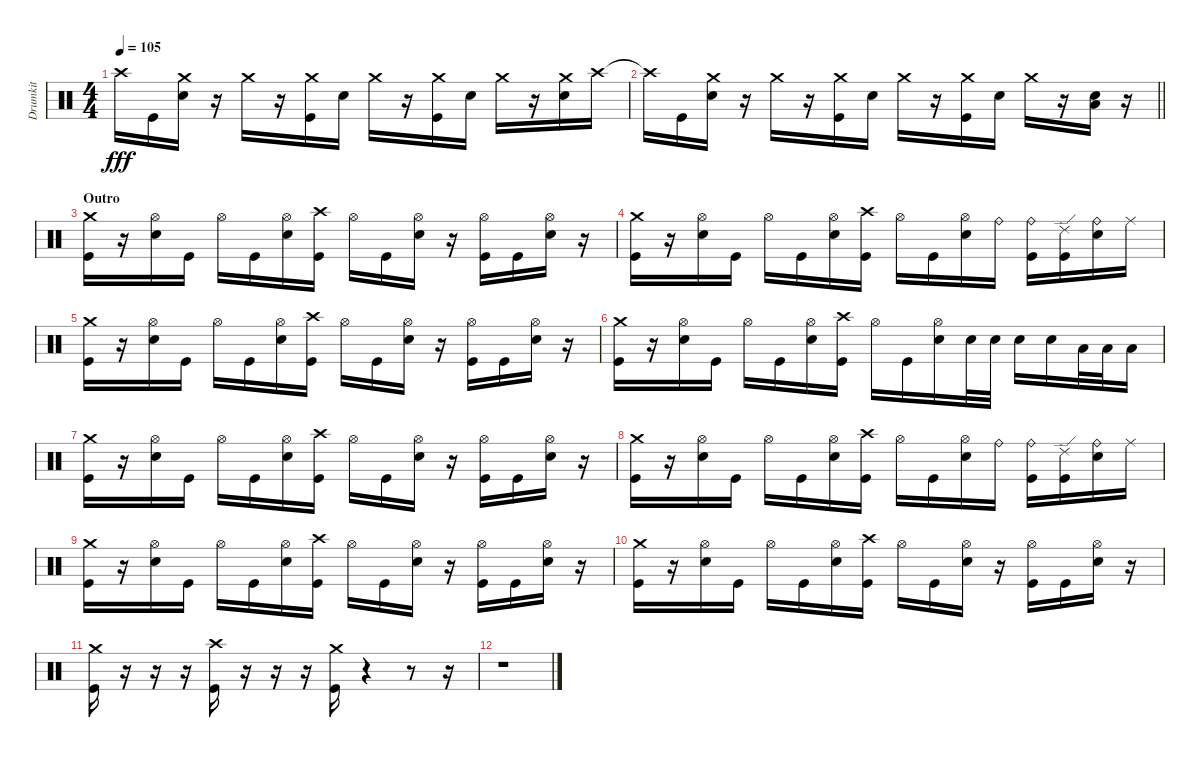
\track ("Drumkit" "Drumkit") {instrument percussion}
\staff {score}
\articulation defaults
\ts (4 4)
\tempo 105
\clef neutral
\ks c "Crash high (hit)"{t}.16{dy fff} "Kick (hit)".16
("Crash medium (hit)" "Snare (hit) 2").16 r.16 "Crash medium (hit)".16 r.16 ("Crash medium (hit)" "Kick (hit)").16 "Snare (hit) 2".16 "Crash medium (hit)".16 r.16 ("Crash medium (hit)" "Kick (hit)").16 "Snare (hit) 2".16 "Crash medium (hit)".16 r.16 ("Crash medium (hit)" "Snare (hit) 2").16 "Crash high (hit)".16 |
\barLineRight lightlight "Crash high (hit)"{t}.16 "Kick (hit)".16
("Crash medium (hit)" "Snare (hit) 2").16 r.16 "Crash medium (hit)".16 r.16 ("Crash medium (hit)" "Kick (hit)").16 "Snare (hit) 2".16 "Crash medium (hit)".16 r.16 ("Crash medium (hit)" "Kick (hit)").16 "Snare (hit) 2".16 "Crash medium (hit)".16 r.16 ("Low Tom (hit)" "Snare (hit) 2").16 r.16 |
\section ("" "Outro")
("Crash medium (hit)" "Kick (hit)").16 r.16 ("Hi-Hat (open)" "Snare (hit) 2").16 "Kick (hit)".16 "Hi-Hat (open)".16 "Kick (hit)".16 ("Hi-Hat (open)" "Snare (hit) 2").16 ("Crash high (hit)" "Kick (hit)").16 "Hi-Hat (open)".16 "Kick (hit)".16 ("Hi-Hat (open)" "Snare (hit) 2").16 r.16 ("Hi-Hat (open)" "Kick (hit)").16 "Kick (hit)".16 ("Hi-Hat (open)" "Snare (hit) 2").16 r.16 |
("Crash medium (hit)" "Kick (hit)").16 r.16 ("Hi-Hat (open)" "Snare (hit) 2").16 "Kick (hit)".16 "Hi-Hat (open)".16 "Kick (hit)".16 ("Hi-Hat (open)" "Snare (hit) 2").16 ("Crash high (hit)" "Kick (hit)").16 "Hi-Hat (open)".16 "Kick (hit)".16 ("Hi-Hat (open)" "Snare (hit) 2").16 "Ride (bell)".16 ("Ride (bell)" "Kick (hit)").16 ("Ride (edge) 2" "Kick (hit)").16 ("Ride (bell)" "Snare (hit) 2").16 "Ride (middle)".16 |
("Crash medium (hit)" "Kick (hit)").16 r.16 ("Hi-Hat (open)" "Snare (hit) 2").16 "Kick (hit)".16 "Hi-Hat (open)".16 "Kick (hit)".16 ("Hi-Hat (open)" "Snare (hit) 2").16 ("Crash high (hit)" "Kick (hit)").16 "Hi-Hat (open)".16 "Kick (hit)".16 ("Hi-Hat (open)" "Snare (hit) 2").16 r.16 ("Hi-Hat (open)" "Kick (hit)").16 "Kick (hit)".16 ("Hi-Hat (open)" "Snare (hit) 2").16 r.16 |
("Crash medium (hit)" "Kick (hit)").16 r.16 ("Hi-Hat (open)" "Snare (hit) 2").16 "Kick (hit)".16 "Hi-Hat (open)".16 "Kick (hit)".16 ("Hi-Hat (open)" "Snare (hit) 2").16 ("Crash high (hit)" "Kick (hit)").16 "Hi-Hat (open)".16 "Kick (hit)".16 ("Hi-Hat (open)" "Snare (hit) 2").16 "Snare (hit) 2".32 "Snare (hit) 2".32 "Snare (hit) 2".16 "Snare (hit) 2".16 "Low Tom (hit)".32 "Low Tom (hit)".32 "Low Floor Tom (hit)".16 |
("Crash medium (hit)" "Kick (hit)").16 r.16 ("Hi-Hat (open)" "Snare (hit) 2").16 "Kick (hit)".16 "Hi-Hat (open)".16 "Kick (hit)".16 ("Hi-Hat (open)" "Snare (hit) 2").16 ("Crash high (hit)" "Kick (hit)").16 "Hi-Hat (open)".16 "Kick (hit)".16 ("Hi-Hat (open)" "Snare (hit) 2").16 r.16 ("Hi-Hat (open)" "Kick (hit)").16 "Kick (hit)".16 ("Hi-Hat (open)" "Snare (hit) 2").16 r.16 |
("Crash medium (hit)" "Kick (hit)").16 r.16 ("Hi-Hat (open)" "Snare (hit) 2").16 "Kick (hit)".16 "Hi-Hat (open)".16 "Kick (hit)".16 ("Hi-Hat (open)" "Snare (hit) 2").16 ("Crash high (hit)" "Kick (hit)").16 "Hi-Hat (open)".16 "Kick (hit)".16 ("Hi-Hat (open)" "Snare (hit) 2").16 "Ride (bell)".16 ("Ride (bell)" "Kick (hit)").16 ("Ride (edge) 2" "Kick (hit)").16 ("Ride (bell)" "Snare (hit) 2").16 "Ride (middle)".16 |
("Crash medium (hit)" "Kick (hit)").16 r.16 ("Hi-Hat (open)" "Snare (hit) 2").16 "Kick (hit)".16 "Hi-Hat (open)".16 "Kick (hit)".16 ("Hi-Hat (open)" "Snare (hit) 2").16 ("Crash high (hit)" "Kick (hit)").16 "Hi-Hat (open)".16 "Kick (hit)".16 ("Hi-Hat (open)" "Snare (hit) 2").16 r.16 ("Hi-Hat (open)" "Kick (hit)").16 "Kick (hit)".16 ("Hi-Hat (open)" "Snare (hit) 2").16 r.16 |
("Crash medium (hit)" "Kick (hit)").16 r.16 ("Hi-Hat (open)" "Snare (hit) 2").16 "Kick (hit)".16 "Hi-Hat (open)".16 "Kick (hit)".16 ("Hi-Hat (open)" "Snare (hit) 2").16 ("Crash high (hit)" "Kick (hit)").16 "Hi-Hat (open)".16 "Kick (hit)".16 ("Hi-Hat (open)" "Snare (hit) 2").16 r.16 ("Hi-Hat (open)" "Kick (hit)").16 "Kick (hit)".16 ("Hi-Hat (open)" "Snare (hit) 2").16 r.16 |
("Crash medium (hit)" "Kick (hit)").16 r.16 r.16 r.16 ("Crash high (hit)" "Kick (hit)").16 r.16 r.16 r.16 ("Crash medium (hit)" "Kick (hit)").16 r.4 r.8 r.16 |
r.1
